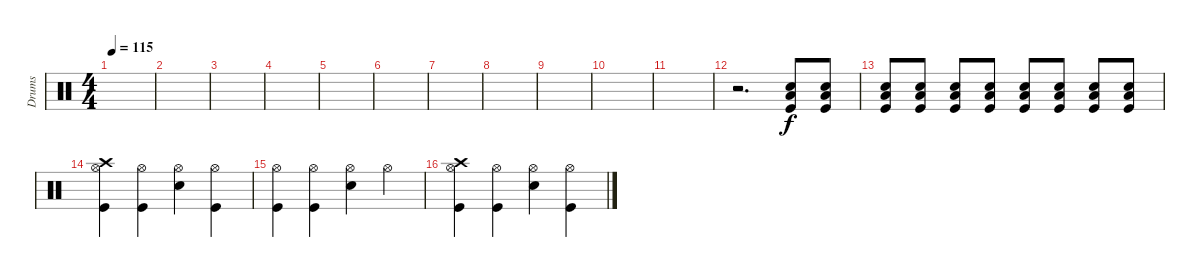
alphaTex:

\track ("Drums" "Drums") {instrument percussion}
\staff {score}
\articulation defaults
\ts (4 4)
\tempo 115
\clef neutral
\ks c
|
|
|
|
|
|
|
|
|
|
|
r.2{d} ("Snare (hit) 2" "Low Floor Tom (hit)" "Kick (hit)").8 ("Snare (hit) 2" "Low Floor Tom (hit)" "Kick (hit)").8 |
("Snare (hit) 2" "Low Floor Tom (hit)" "Kick (hit)").8 ("Snare (hit) 2" "Low Floor Tom (hit)" "Kick (hit)").8 ("Snare (hit) 2" "Low Floor Tom (hit)" "Kick (hit)").8 ("Snare (hit) 2" "Low Floor Tom (hit)" "Kick (hit)").8 ("Snare (hit) 2" "Low Floor Tom (hit)" "Kick (hit)").8 ("Snare (hit) 2" "Low Floor Tom (hit)" "Kick (hit)").8 ("Snare (hit) 2" "Low Floor Tom (hit)" "Kick (hit)").8 ("Snare (hit) 2" "Low Floor Tom (hit)" "Kick (hit)").8 |
("Crash high (hit)" "Hi-Hat (open)" "Kick (hit)").4 ("Hi-Hat (open)" "Kick (hit)").4 ("Hi-Hat (open)" "Snare (hit) 2").4 ("Hi-Hat (open)" "Kick (hit)").4 |
("Hi-Hat (open)" "Kick (hit)").4 ("Hi-Hat (open)" "Kick (hit)").4 ("Hi-Hat (open)" "Snare (hit) 2").4 "Hi-Hat (open)".4 |
("Crash high (hit)" "Hi-Hat (open)" "Kick (hit)").4 ("Hi-Hat (open)" "Kick (hit)").4 ("Hi-Hat (open)" "Snare (hit) 2").4 ("Hi-Hat (open)" "Kick (hit)").4
